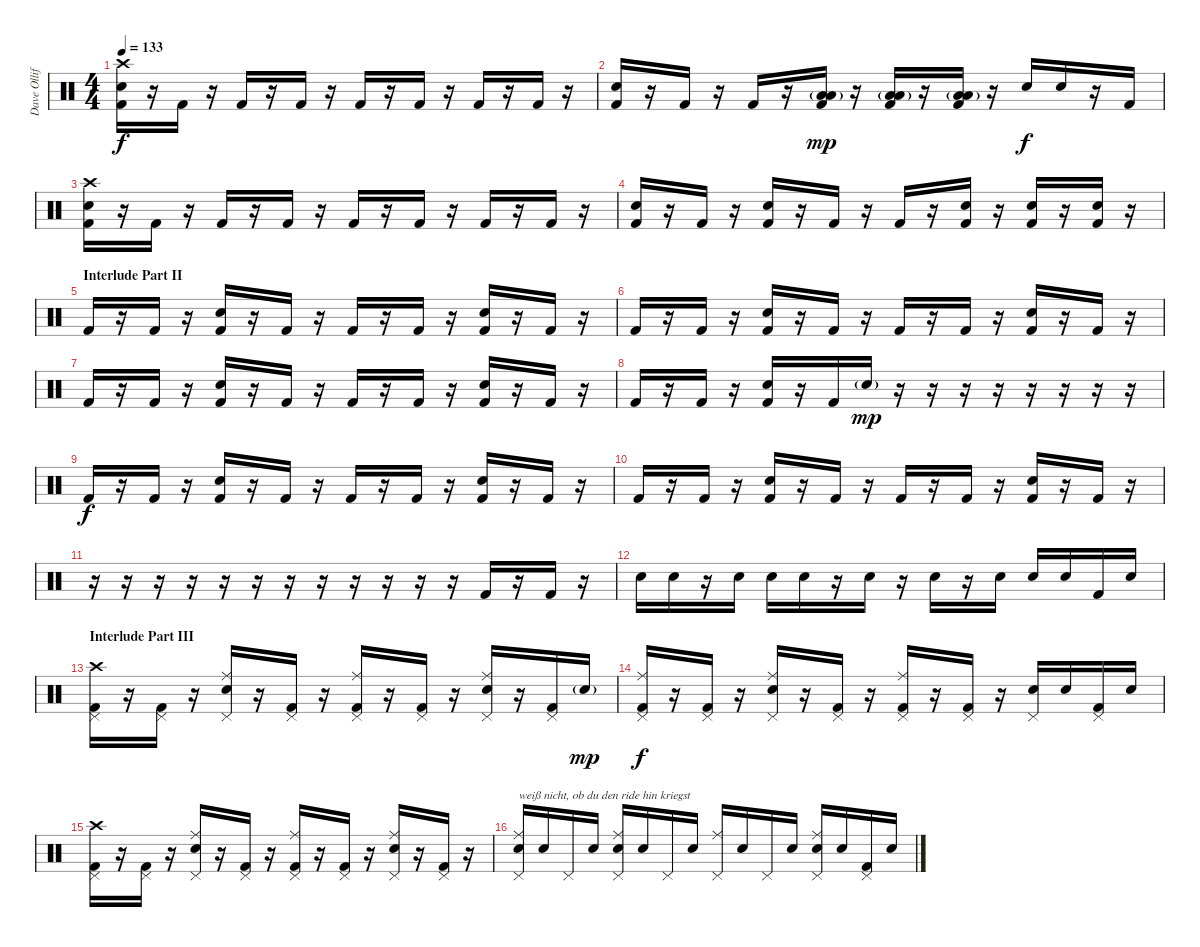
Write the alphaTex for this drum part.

\track ("Dave Olliffe - Drums" "Dave Ollif") {instrument percussion}
\staff {score}
\articulation defaults
\ts (4 4)
\tempo 133
\clef neutral
\ks c
("Crash high (hit)" "Snare (hit) 2" "Kick (hit) 2").16{dy f} r.16 "Kick (hit) 2".16 r.16 "Kick (hit) 2".16 r.16 "Kick (hit) 2".16 r.16 "Kick (hit) 2".16 r.16 "Kick (hit) 2".16 r.16 "Kick (hit) 2".16 r.16 "Kick (hit) 2".16 r.16 |
("Snare (hit) 2" "Kick (hit) 2").16 r.16 "Kick (hit) 2".16 r.16 "Kick (hit) 2".16 r.16 ("Low Tom (hit)"{g} "Low Tom (hit)"{g} "Kick (hit) 2").16{bd 60 dy mp} r.16 ("Low Tom (hit)"{g} "Low Tom (hit)"{g} "Kick (hit) 2").16{bd 60} r.16 ("Low Tom (hit)"{g} "Low Tom (hit)"{g} "Kick (hit) 2").16{bd 60} r.16 "Snare (hit) 2".16{dy f} "Snare (hit) 2".16 r.16 "Kick (hit) 2".16 |
("Crash high (hit)" "Snare (hit) 2" "Kick (hit) 2").16 r.16 "Kick (hit) 2".16 r.16 "Kick (hit) 2".16 r.16 "Kick (hit) 2".16 r.16 "Kick (hit) 2".16 r.16 "Kick (hit) 2".16 r.16 "Kick (hit) 2".16 r.16 "Kick (hit) 2".16 r.16 |
("Snare (hit) 2" "Kick (hit) 2").16 r.16 "Kick (hit) 2".16 r.16 ("Snare (hit) 2" "Kick (hit) 2").16 r.16 "Kick (hit) 2".16 r.16 "Kick (hit) 2".16 r.16 ("Snare (hit) 2" "Kick (hit) 2").16 r.16 ("Snare (hit) 2" "Kick (hit) 2").16 r.16 ("Snare (hit) 2" "Kick (hit) 2").16 r.16 |
\section ("" "Interlude Part II")
"Kick (hit) 2".16 r.16 "Kick (hit) 2".16 r.16 ("Snare (hit) 2" "Kick (hit) 2").16 r.16 "Kick (hit) 2".16 r.16 "Kick (hit) 2".16 r.16 "Kick (hit) 2".16 r.16 ("Snare (hit) 2" "Kick (hit) 2").16 r.16 "Kick (hit) 2".16 r.16 |
"Kick (hit) 2".16 r.16 "Kick (hit) 2".16 r.16 ("Snare (hit) 2" "Kick (hit) 2").16 r.16 "Kick (hit) 2".16 r.16 "Kick (hit) 2".16 r.16 "Kick (hit) 2".16 r.16 ("Snare (hit) 2" "Kick (hit) 2").16 r.16 "Kick (hit) 2".16 r.16 |
"Kick (hit) 2".16 r.16 "Kick (hit) 2".16 r.16 ("Snare (hit) 2" "Kick (hit) 2").16 r.16 "Kick (hit) 2".16 r.16 "Kick (hit) 2".16 r.16 "Kick (hit) 2".16 r.16 ("Snare (hit) 2" "Kick (hit) 2").16 r.16 "Kick (hit) 2".16 r.16 |
"Kick (hit) 2".16 r.16 "Kick (hit) 2".16 r.16 ("Snare (hit) 2" "Kick (hit) 2").16 r.16 "Kick (hit) 2".16 "Snare (hit) 2"{g}.16{dy mp} r.16 r.16 r.16 r.16 r.16 r.16 r.16 r.16 |
"Kick (hit) 2".16{dy f} r.16 "Kick (hit) 2".16 r.16 ("Snare (hit) 2" "Kick (hit) 2").16 r.16 "Kick (hit) 2".16 r.16 "Kick (hit) 2".16 r.16 "Kick (hit) 2".16 r.16 ("Snare (hit) 2" "Kick (hit) 2").16 r.16 "Kick (hit) 2".16 r.16 |
"Kick (hit) 2".16 r.16 "Kick (hit) 2".16 r.16 ("Snare (hit) 2" "Kick (hit) 2").16 r.16 "Kick (hit) 2".16 r.16 "Kick (hit) 2".16 r.16 "Kick (hit) 2".16 r.16 ("Snare (hit) 2" "Kick (hit) 2").16 r.16 "Kick (hit) 2".16 r.16 |
r.16 r.16 r.16 r.16 r.16 r.16 r.16 r.16 r.16 r.16 r.16 r.16 "Kick (hit) 2".16 r.16 "Kick (hit) 2".16 r.16 |
"Snare (hit) 2".16 "Snare (hit) 2".16 r.16 "Snare (hit) 2".16 "Snare (hit) 2".16 "Snare (hit) 2".16 r.16 "Snare (hit) 2".16 r.16 "Snare (hit) 2".16 r.16 "Snare (hit) 2".16 "Snare (hit) 2".16 "Snare (hit) 2".16 "Kick (hit) 2".16 "Snare (hit) 2".16 |
\section ("" "Interlude Part III")
("Crash high (hit)" "Pedal Hi-Hat (hit)" "Kick (hit) 2").16 r.16 ("Pedal Hi-Hat (hit)" "Kick (hit) 2").16 r.16 ("Ride (middle)" "Pedal Hi-Hat (hit)" "Snare (hit) 2").16 r.16 ("Pedal Hi-Hat (hit)" "Kick (hit) 2").16 r.16 ("Ride (middle)" "Pedal Hi-Hat (hit)" "Kick (hit) 2").16 r.16 ("Pedal Hi-Hat (hit)" "Kick (hit) 2").16 r.16 ("Ride (middle)" "Pedal Hi-Hat (hit)" "Snare (hit) 2").16 r.16 ("Pedal Hi-Hat (hit)" "Kick (hit) 2").16 "Snare (hit) 2"{g}.16{dy mp} |
("Ride (middle)" "Pedal Hi-Hat (hit)" "Kick (hit) 2").16{dy f} r.16 ("Pedal Hi-Hat (hit)" "Kick (hit) 2").16 r.16 ("Ride (middle)" "Pedal Hi-Hat (hit)" "Snare (hit) 2").16 r.16 ("Pedal Hi-Hat (hit)" "Kick (hit) 2").16 r.16 ("Ride (middle)" "Pedal Hi-Hat (hit)" "Kick (hit) 2").16 r.16 ("Pedal Hi-Hat (hit)" "Kick (hit) 2").16 r.16 ("Pedal Hi-Hat (hit)" "Snare (hit) 2").16 "Snare (hit) 2".16 ("Pedal Hi-Hat (hit)" "Kick (hit) 2").16 "Snare (hit) 2".16 |
("Crash high (hit)" "Pedal Hi-Hat (hit)" "Kick (hit) 2").16 r.16 ("Pedal Hi-Hat (hit)" "Kick (hit) 2").16 r.16 ("Ride (middle)" "Pedal Hi-Hat (hit)" "Snare (hit) 2").16 r.16 ("Pedal Hi-Hat (hit)" "Kick (hit) 2").16 r.16 ("Ride (middle)" "Pedal Hi-Hat (hit)" "Kick (hit) 2").16 r.16 ("Pedal Hi-Hat (hit)" "Kick (hit) 2").16 r.16 ("Ride (middle)" "Pedal Hi-Hat (hit)" "Snare (hit) 2").16 r.16 ("Pedal Hi-Hat (hit)" "Kick (hit) 2").16 r.16 |
("Ride (middle)" "Pedal Hi-Hat (hit)" "Snare (hit) 2").16{txt "weiß nicht, ob du den ride hin kriegst"} "Snare (hit) 2".16 "Pedal Hi-Hat (hit)".16 "Snare (hit) 2".16 ("Ride (middle)" "Pedal Hi-Hat (hit)" "Snare (hit) 2").16 "Snare (hit) 2".16 "Pedal Hi-Hat (hit)".16 "Snare (hit) 2".16 ("Ride (middle)" "Pedal Hi-Hat (hit)").16 "Snare (hit) 2".16 "Pedal Hi-Hat (hit)".16 "Snare (hit) 2".16 ("Ride (middle)" "Pedal Hi-Hat (hit)" "Snare (hit) 2").16 "Snare (hit) 2".16 ("Pedal Hi-Hat (hit)" "Kick (hit) 2").16 "Snare (hit) 2".16
